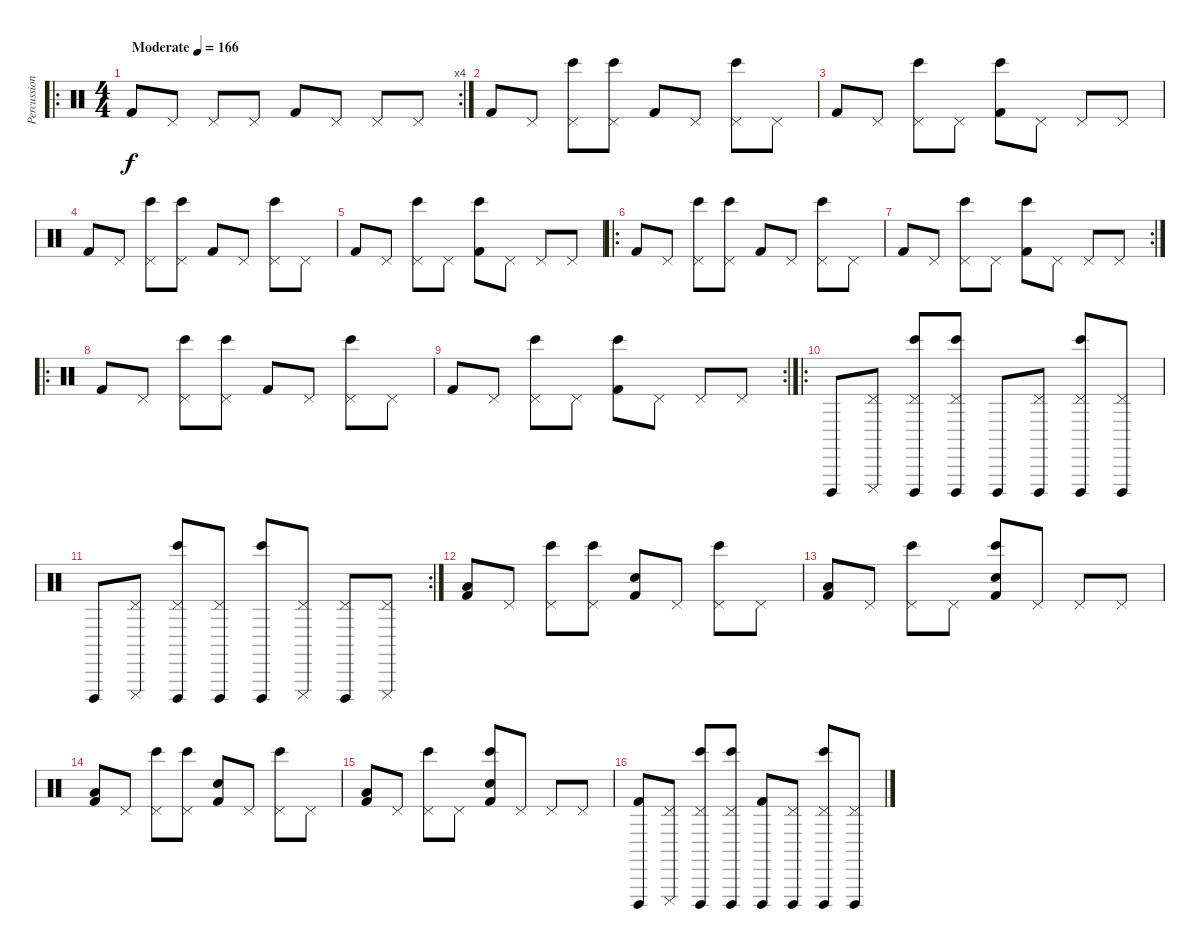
\track ("Percussion" "Percussion") {instrument percussion}
\staff {score}
\articulation defaults
\ro
\rc 4
\ts (4 4)
\tempo (166 "Moderate")
\clef neutral
\ks c "Kick (hit) 2".8{dy f} "Pedal Hi-Hat (hit)".8 "Pedal Hi-Hat (hit)".8 "Pedal Hi-Hat (hit)".8 "Kick (hit) 2".8 "Pedal Hi-Hat (hit)".8 "Pedal Hi-Hat (hit)".8 "Pedal Hi-Hat (hit)".8
|
"Kick (hit) 2".8 "Pedal Hi-Hat (hit)".8 ("Pedal Hi-Hat (hit)" "Bongo High (hit)").8 ("Pedal Hi-Hat (hit)" "Bongo High (hit)").8 "Kick (hit) 2".8 "Pedal Hi-Hat (hit)".8 ("Pedal Hi-Hat (hit)" "Bongo High (hit)").8 "Pedal Hi-Hat (hit)".8 |
"Kick (hit) 2".8 "Pedal Hi-Hat (hit)".8 ("Pedal Hi-Hat (hit)" "Bongo High (hit)").8 "Pedal Hi-Hat (hit)".8 ("Kick (hit) 2" "Bongo High (hit)").8 "Pedal Hi-Hat (hit)".8 "Pedal Hi-Hat (hit)".8 "Pedal Hi-Hat (hit)".8 |
"Kick (hit) 2".8 "Pedal Hi-Hat (hit)".8 ("Pedal Hi-Hat (hit)" "Bongo High (hit)").8 ("Pedal Hi-Hat (hit)" "Bongo High (hit)").8 "Kick (hit) 2".8 "Pedal Hi-Hat (hit)".8 ("Pedal Hi-Hat (hit)" "Bongo High (hit)").8 "Pedal Hi-Hat (hit)".8 |
"Kick (hit) 2".8 "Pedal Hi-Hat (hit)".8 ("Pedal Hi-Hat (hit)" "Bongo High (hit)").8 "Pedal Hi-Hat (hit)".8 ("Kick (hit) 2" "Bongo High (hit)").8 "Pedal Hi-Hat (hit)".8 "Pedal Hi-Hat (hit)".8 "Pedal Hi-Hat (hit)".8 |
\ro "Kick (hit) 2".8 "Pedal Hi-Hat (hit)".8
("Pedal Hi-Hat (hit)" "Bongo High (hit)").8 ("Pedal Hi-Hat (hit)" "Bongo High (hit)").8 "Kick (hit) 2".8 "Pedal Hi-Hat (hit)".8 ("Pedal Hi-Hat (hit)" "Bongo High (hit)").8 "Pedal Hi-Hat (hit)".8 |
\rc 2 "Kick (hit) 2".8 "Pedal Hi-Hat (hit)".8
("Pedal Hi-Hat (hit)" "Bongo High (hit)").8 "Pedal Hi-Hat (hit)".8 ("Kick (hit) 2" "Bongo High (hit)").8 "Pedal Hi-Hat (hit)".8 "Pedal Hi-Hat (hit)".8 "Pedal Hi-Hat (hit)".8 |
\ro "Kick (hit) 2".8 "Pedal Hi-Hat (hit)".8
("Pedal Hi-Hat (hit)" "Bongo High (hit)").8 ("Pedal Hi-Hat (hit)" "Bongo High (hit)").8 "Kick (hit) 2".8 "Pedal Hi-Hat (hit)".8 ("Pedal Hi-Hat (hit)" "Bongo High (hit)").8 "Pedal Hi-Hat (hit)".8 |
\rc 2 "Kick (hit) 2".8 "Pedal Hi-Hat (hit)".8
("Pedal Hi-Hat (hit)" "Bongo High (hit)").8 "Pedal Hi-Hat (hit)".8 ("Kick (hit) 2" "Bongo High (hit)").8 "Pedal Hi-Hat (hit)".8 "Pedal Hi-Hat (hit)".8 "Pedal Hi-Hat (hit)".8 |
\ro "Cuica (open)".8
("Pedal Hi-Hat (hit)" "Cuica (mute)").8 ("Pedal Hi-Hat (hit)" "Bongo High (hit)" "Cuica (open)").8 ("Pedal Hi-Hat (hit)" "Bongo High (hit)" "Cuica (open)").8 "Cuica (open)".8 ("Pedal Hi-Hat (hit)" "Cuica (open)").8 ("Pedal Hi-Hat (hit)" "Bongo High (hit)" "Cuica (open)").8 ("Pedal Hi-Hat (hit)" "Cuica (open)").8 |
\rc 2 "Cuica (open)".8
("Pedal Hi-Hat (hit)" "Cuica (mute)").8 ("Pedal Hi-Hat (hit)" "Bongo High (hit)" "Cuica (open)").8 ("Pedal Hi-Hat (hit)" "Cuica (open)").8 ("Bongo High (hit)" "Cuica (open)").8 ("Pedal Hi-Hat (hit)" "Cuica (mute)").8 ("Pedal Hi-Hat (hit)" "Cuica (open)").8 ("Pedal Hi-Hat (hit)" "Cuica (mute)").8 |
("Kick (hit) 2" "Low Tom (hit)").8 "Pedal Hi-Hat (hit)".8 ("Pedal Hi-Hat (hit)" "Bongo High (hit)").8 ("Pedal Hi-Hat (hit)" "Bongo High (hit)").8 ("Kick (hit) 2" "Electric Snare (hit)").8 "Pedal Hi-Hat (hit)".8 ("Pedal Hi-Hat (hit)" "Bongo High (hit)").8 "Pedal Hi-Hat (hit)".8 |
("Kick (hit) 2" "Low Tom (hit)").8 "Pedal Hi-Hat (hit)".8 ("Pedal Hi-Hat (hit)" "Bongo High (hit)").8 "Pedal Hi-Hat (hit)".8 ("Kick (hit) 2" "Bongo High (hit)" "Electric Snare (hit)").8 "Pedal Hi-Hat (hit)".8 "Pedal Hi-Hat (hit)".8 "Pedal Hi-Hat (hit)".8 |
("Kick (hit) 2" "Low Tom (hit)").8 "Pedal Hi-Hat (hit)".8 ("Pedal Hi-Hat (hit)" "Bongo High (hit)").8 ("Pedal Hi-Hat (hit)" "Bongo High (hit)").8 ("Kick (hit) 2" "Electric Snare (hit)").8 "Pedal Hi-Hat (hit)".8 ("Pedal Hi-Hat (hit)" "Bongo High (hit)").8 "Pedal Hi-Hat (hit)".8 |
("Kick (hit) 2" "Low Tom (hit)").8 "Pedal Hi-Hat (hit)".8 ("Pedal Hi-Hat (hit)" "Bongo High (hit)").8 "Pedal Hi-Hat (hit)".8 ("Kick (hit) 2" "Bongo High (hit)" "Electric Snare (hit)").8 "Pedal Hi-Hat (hit)".8 "Pedal Hi-Hat (hit)".8 "Pedal Hi-Hat (hit)".8 |
("Kick (hit) 2" "Cuica (open)").8 ("Pedal Hi-Hat (hit)" "Cuica (mute)").8 ("Pedal Hi-Hat (hit)" "Bongo High (hit)" "Cuica (open)").8 ("Pedal Hi-Hat (hit)" "Bongo High (hit)" "Cuica (open)").8 ("Kick (hit) 2" "Cuica (open)").8 ("Pedal Hi-Hat (hit)" "Cuica (open)").8 ("Pedal Hi-Hat (hit)" "Bongo High (hit)" "Cuica (open)").8 ("Pedal Hi-Hat (hit)" "Cuica (open)").8
